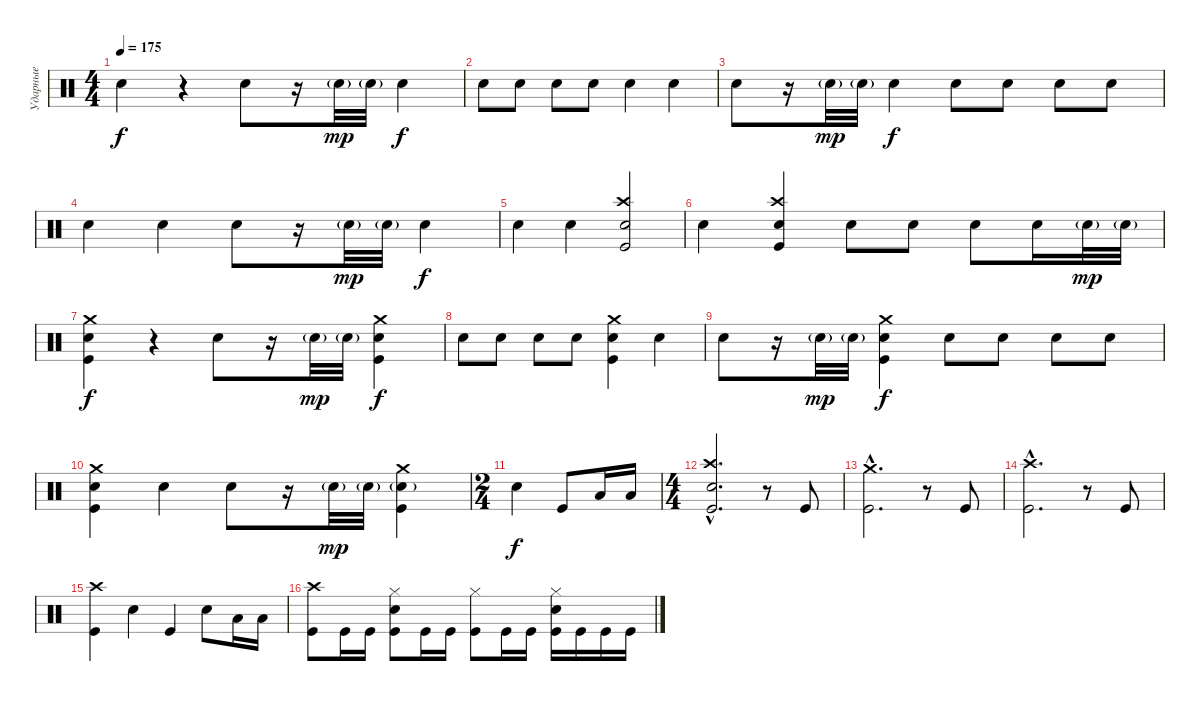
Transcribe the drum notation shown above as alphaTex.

\track ("Ударные" "Ударные") {instrument percussion}
\staff {score}
\articulation defaults
\ts (4 4)
\tempo 175
\clef neutral
\ks c "Electric Snare (hit)".4{dy f}
r.4 "Electric Snare (hit)".8 r.16 "Electric Snare (hit)"{g}.32{dy mp} "Electric Snare (hit)"{g}.32 "Electric Snare (hit)".4{dy f} |
"Electric Snare (hit)".8 "Electric Snare (hit)".8 "Electric Snare (hit)".8 "Electric Snare (hit)".8 "Electric Snare (hit)".4 "Electric Snare (hit)".4 |
"Electric Snare (hit)".8 r.16 "Electric Snare (hit)"{g}.32{dy mp} "Electric Snare (hit)"{g}.32 "Electric Snare (hit)".4{dy f} "Electric Snare (hit)".8 "Electric Snare (hit)".8 "Electric Snare (hit)".8 "Electric Snare (hit)".8 |
"Electric Snare (hit)".4 "Electric Snare (hit)".4 "Electric Snare (hit)".8 r.16 "Electric Snare (hit)"{g}.32{dy mp} "Electric Snare (hit)"{g}.32 "Electric Snare (hit)".4{dy f} |
"Electric Snare (hit)".4 "Electric Snare (hit)".4 ("Crash high (hit)" "Electric Snare (hit)" "Kick (hit)").2 |
"Electric Snare (hit)".4 ("Crash high (hit)" "Electric Snare (hit)" "Kick (hit)").4 "Electric Snare (hit)".8 "Electric Snare (hit)".8 "Electric Snare (hit)".8 "Electric Snare (hit)".16 "Electric Snare (hit)"{g}.32{dy mp} "Electric Snare (hit)"{g}.32 |
("Crash medium (hit)" "Electric Snare (hit)" "Kick (hit)").4{dy f} r.4 "Electric Snare (hit)".8 r.16 "Electric Snare (hit)"{g}.32{dy mp} "Electric Snare (hit)"{g}.32 ("Crash medium (hit)" "Electric Snare (hit)" "Kick (hit)").4{dy f} |
"Electric Snare (hit)".8 "Electric Snare (hit)".8 "Electric Snare (hit)".8 "Electric Snare (hit)".8 ("Crash medium (hit)" "Electric Snare (hit)" "Kick (hit)").4 "Electric Snare (hit)".4 |
"Electric Snare (hit)".8 r.16 "Electric Snare (hit)"{g}.32{dy mp} "Electric Snare (hit)"{g}.32 ("Crash medium (hit)" "Electric Snare (hit)" "Kick (hit)").4{dy f} "Electric Snare (hit)".8 "Electric Snare (hit)".8 "Electric Snare (hit)".8 "Electric Snare (hit)".8 |
("Crash medium (hit)" "Electric Snare (hit)" "Kick (hit)").4 "Electric Snare (hit)".4 "Electric Snare (hit)".8 r.16 "Electric Snare (hit)"{g}.32{dy mp} "Electric Snare (hit)"{g}.32 ("Crash medium (hit)" "Electric Snare (hit)"{g} "Kick (hit)").4 |
\ts (2 4)
"Electric Snare (hit)".4{dy f} "Kick (hit)".8 "Low Tom (hit)".16 "Low Tom (hit)".16 |
\ts (4 4)
("Crash high (hit)"{hac} "Electric Snare (hit)"{hac} "Kick (hit)"{hac}).2{d} r.8 "Kick (hit)".8 |
("Crash medium (hit)"{hac} "Kick (hit)"{hac}).2{d} r.8 "Kick (hit)".8 |
("Crash high (hit)"{hac} "Kick (hit)"{hac}).2{d} r.8 "Kick (hit)".8 |
("Crash high (hit)" "Kick (hit)").4 "Electric Snare (hit)".4 "Kick (hit)".4 "Electric Snare (hit)".8 "Low Tom (hit)".16 "Low Tom (hit)".16 |
("Crash high (hit)" "Kick (hit)").8 "Kick (hit)".16 "Kick (hit)".16 ("Hi-Hat (closed)" "Electric Snare (hit)" "Kick (hit)").8 "Kick (hit)".16 "Kick (hit)".16 ("Hi-Hat (closed)" "Kick (hit)").8 "Kick (hit)".16 "Kick (hit)".16 ("Hi-Hat (closed)" "Electric Snare (hit)" "Kick (hit)").16 "Kick (hit)".16 "Kick (hit)".16 "Kick (hit)".16
